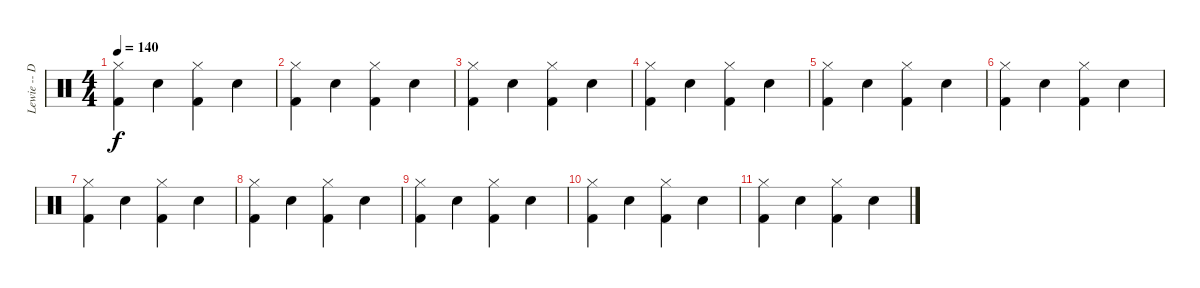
\track ("Lewie -- Drums" "Lewie -- D") {instrument percussion}
\staff {score}
\articulation defaults
\ts (4 4)
\tempo 140
\clef neutral
\ks c
("Hi-Hat (closed)" "Kick (hit) 2").4{dy f} "Electric Snare (hit)".4 ("Hi-Hat (closed)" "Kick (hit) 2").4 "Electric Snare (hit)".4 |
("Hi-Hat (closed)" "Kick (hit) 2").4 "Electric Snare (hit)".4 ("Hi-Hat (closed)" "Kick (hit) 2").4 "Electric Snare (hit)".4 |
("Hi-Hat (closed)" "Kick (hit) 2").4 "Electric Snare (hit)".4 ("Hi-Hat (closed)" "Kick (hit) 2").4 "Electric Snare (hit)".4 |
("Hi-Hat (closed)" "Kick (hit) 2").4 "Electric Snare (hit)".4 ("Hi-Hat (closed)" "Kick (hit) 2").4 "Electric Snare (hit)".4 |
("Hi-Hat (closed)" "Kick (hit) 2").4 "Electric Snare (hit)".4 ("Hi-Hat (closed)" "Kick (hit) 2").4 "Electric Snare (hit)".4 |
("Hi-Hat (closed)" "Kick (hit) 2").4 "Electric Snare (hit)".4 ("Hi-Hat (closed)" "Kick (hit) 2").4 "Electric Snare (hit)".4 |
("Hi-Hat (closed)" "Kick (hit) 2").4 "Electric Snare (hit)".4 ("Hi-Hat (closed)" "Kick (hit) 2").4 "Electric Snare (hit)".4 |
("Hi-Hat (closed)" "Kick (hit) 2").4 "Electric Snare (hit)".4 ("Hi-Hat (closed)" "Kick (hit) 2").4 "Electric Snare (hit)".4 |
("Hi-Hat (closed)" "Kick (hit) 2").4 "Electric Snare (hit)".4 ("Hi-Hat (closed)" "Kick (hit) 2").4 "Electric Snare (hit)".4 |
("Hi-Hat (closed)" "Kick (hit) 2").4 "Electric Snare (hit)".4 ("Hi-Hat (closed)" "Kick (hit) 2").4 "Electric Snare (hit)".4 |
("Hi-Hat (closed)" "Kick (hit) 2").4 "Electric Snare (hit)".4 ("Hi-Hat (closed)" "Kick (hit) 2").4 "Electric Snare (hit)".4
